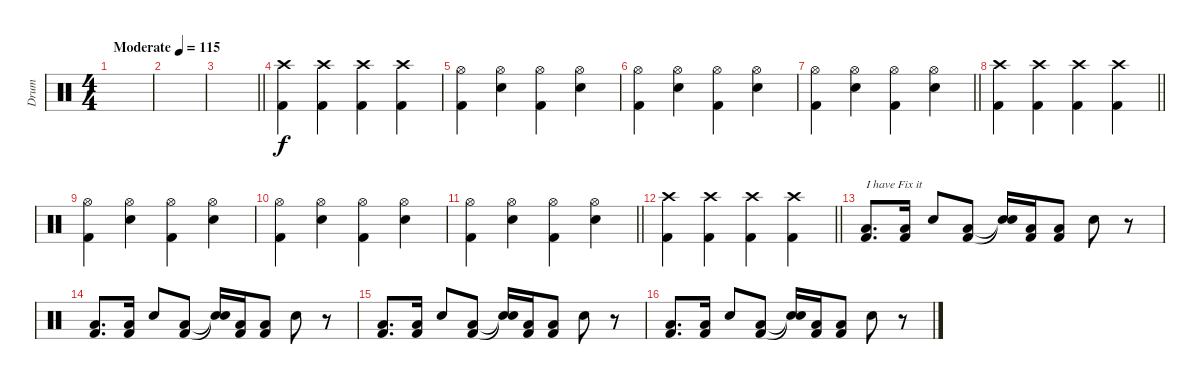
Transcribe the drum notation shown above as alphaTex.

\track ("Drum" "Drum") {instrument percussion}
\staff {score}
\articulation defaults
\ts (4 4)
\section ("" "")
\tempo (115 "Moderate")
\clef neutral
\ks c
|
|
\barLineRight lightlight
|
\section ("" "")
("Kick (hit) 2" "Crash high (hit)").4 ("Kick (hit) 2" "Crash high (hit)").4 ("Kick (hit) 2" "Crash high (hit)").4 ("Kick (hit) 2" "Crash high (hit)").4 |
("Kick (hit) 2" "Hi-Hat (open)").4 ("Snare (hit) 2" "Hi-Hat (open)").4 ("Kick (hit) 2" "Hi-Hat (open)").4 ("Snare (hit) 2" "Hi-Hat (open)").4 |
("Kick (hit) 2" "Hi-Hat (open)").4 ("Snare (hit) 2" "Hi-Hat (open)").4 ("Kick (hit) 2" "Hi-Hat (open)").4 ("Snare (hit) 2" "Hi-Hat (open)").4 |
\barLineRight lightlight
("Kick (hit) 2" "Hi-Hat (open)").4 ("Snare (hit) 2" "Hi-Hat (open)").4 ("Kick (hit) 2" "Hi-Hat (open)").4 ("Snare (hit) 2" "Hi-Hat (open)").4 |
\barLineRight lightlight
("Kick (hit) 2" "Crash high (hit)").4 ("Kick (hit) 2" "Crash high (hit)").4 ("Kick (hit) 2" "Crash high (hit)").4 ("Kick (hit) 2" "Crash high (hit)").4 |
("Kick (hit) 2" "Hi-Hat (open)").4 ("Snare (hit) 2" "Hi-Hat (open)").4 ("Kick (hit) 2" "Hi-Hat (open)").4 ("Snare (hit) 2" "Hi-Hat (open)").4 |
("Kick (hit) 2" "Hi-Hat (open)").4 ("Snare (hit) 2" "Hi-Hat (open)").4 ("Kick (hit) 2" "Hi-Hat (open)").4 ("Snare (hit) 2" "Hi-Hat (open)").4 |
\barLineRight lightlight
("Kick (hit) 2" "Hi-Hat (open)").4 ("Snare (hit) 2" "Hi-Hat (open)").4 ("Kick (hit) 2" "Hi-Hat (open)").4 ("Snare (hit) 2" "Hi-Hat (open)").4 |
\barLineRight lightlight
("Kick (hit) 2" "Crash high (hit)").4 ("Kick (hit) 2" "Crash high (hit)").4 ("Kick (hit) 2" "Crash high (hit)").4 ("Kick (hit) 2" "Crash high (hit)").4 |
\section ("" "")
("Kick (hit) 2" "Low Floor Tom (hit)").8{d txt "I have Fix it"} ("Kick (hit) 2" "Low Floor Tom (hit)").16 "Snare (hit) 2".8 ("Kick (hit) 2" "Low Floor Tom (hit)").8 ("Snare (hit)"{t} "Snare (hit)"{t}).16 ("Kick (hit) 2" "Low Floor Tom (hit)").16 ("Kick (hit) 2" "Low Floor Tom (hit)").8 "Snare (hit) 2".8 r.8 |
("Kick (hit) 2" "Low Floor Tom (hit)").8{d} ("Kick (hit) 2" "Low Floor Tom (hit)").16 "Snare (hit) 2".8 ("Kick (hit) 2" "Low Floor Tom (hit)").8 ("Snare (hit)"{t} "Snare (hit)"{t}).16 ("Kick (hit) 2" "Low Floor Tom (hit)").16 ("Kick (hit) 2" "Low Floor Tom (hit)").8 "Snare (hit) 2".8 r.8 |
("Kick (hit) 2" "Low Floor Tom (hit)").8{d} ("Kick (hit) 2" "Low Floor Tom (hit)").16 "Snare (hit) 2".8 ("Kick (hit) 2" "Low Floor Tom (hit)").8 ("Snare (hit)"{t} "Snare (hit)"{t}).16 ("Kick (hit) 2" "Low Floor Tom (hit)").16 ("Kick (hit) 2" "Low Floor Tom (hit)").8 "Snare (hit) 2".8 r.8 |
("Kick (hit) 2" "Low Floor Tom (hit)").8{d} ("Kick (hit) 2" "Low Floor Tom (hit)").16 "Snare (hit) 2".8 ("Kick (hit) 2" "Low Floor Tom (hit)").8 ("Snare (hit)"{t} "Snare (hit)"{t}).16 ("Kick (hit) 2" "Low Floor Tom (hit)").16 ("Kick (hit) 2" "Low Floor Tom (hit)").8 "Snare (hit) 2".8 r.8
